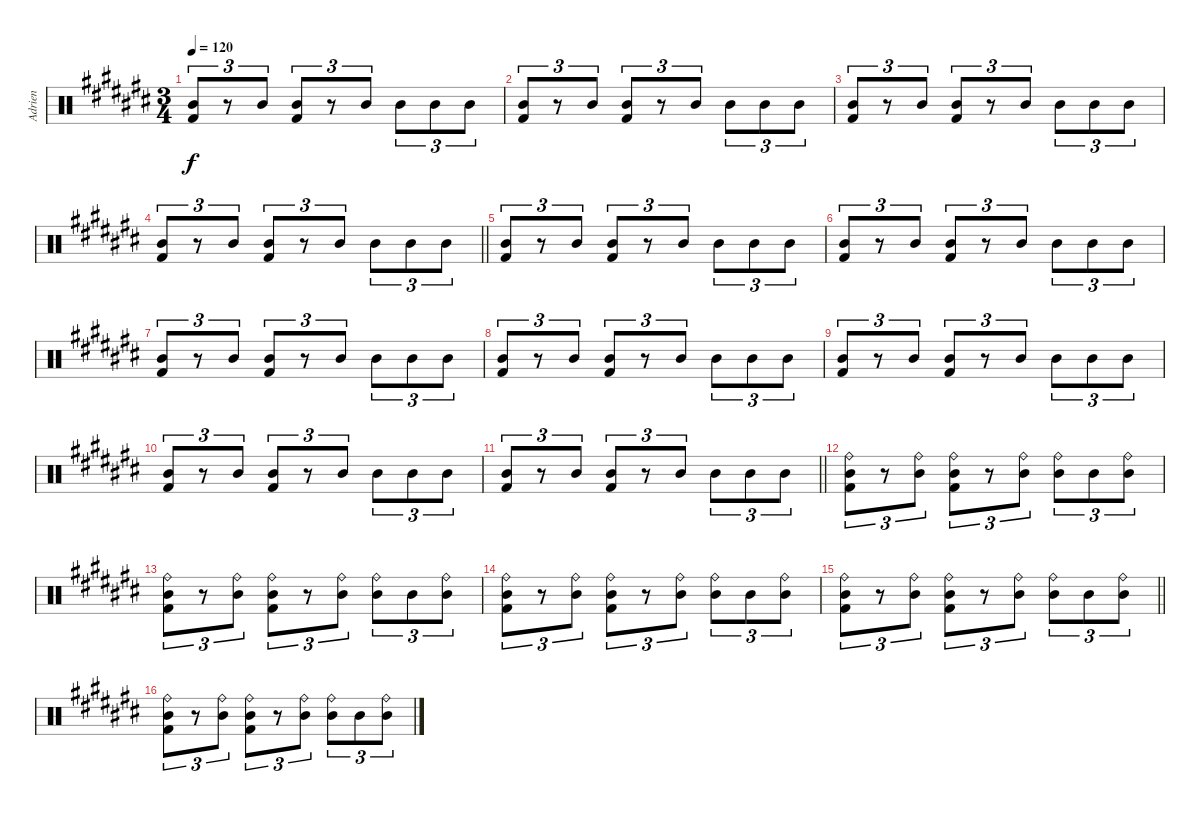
\track ("Adrien" "Adrien") {instrument percussion}
\staff {score}
\articulation defaults
\ts (3 4)
\tempo 120
\clef neutral
\ks c#
("Mid Tom (hit)" "Kick (hit) 2").8{tu (3 2) dy f} r.8{tu (3 2)} "Mid Tom (hit)".8{tu (3 2)} ("Mid Tom (hit)" "Kick (hit) 2").8{tu (3 2)} r.8{tu (3 2)} "Mid Tom (hit)".8{tu (3 2)} "Mid Tom (hit)".8{tu (3 2)} "Mid Tom (hit)".8{tu (3 2)} "Mid Tom (hit)".8{tu (3 2)} |
("Mid Tom (hit)" "Kick (hit) 2").8{tu (3 2)} r.8{tu (3 2)} "Mid Tom (hit)".8{tu (3 2)} ("Mid Tom (hit)" "Kick (hit) 2").8{tu (3 2)} r.8{tu (3 2)} "Mid Tom (hit)".8{tu (3 2)} "Mid Tom (hit)".8{tu (3 2)} "Mid Tom (hit)".8{tu (3 2)} "Mid Tom (hit)".8{tu (3 2)} |
("Mid Tom (hit)" "Kick (hit) 2").8{tu (3 2)} r.8{tu (3 2)} "Mid Tom (hit)".8{tu (3 2)} ("Mid Tom (hit)" "Kick (hit) 2").8{tu (3 2)} r.8{tu (3 2)} "Mid Tom (hit)".8{tu (3 2)} "Mid Tom (hit)".8{tu (3 2)} "Mid Tom (hit)".8{tu (3 2)} "Mid Tom (hit)".8{tu (3 2)} |
\barLineRight lightlight
("Mid Tom (hit)" "Kick (hit) 2").8{tu (3 2)} r.8{tu (3 2)} "Mid Tom (hit)".8{tu (3 2)} ("Mid Tom (hit)" "Kick (hit) 2").8{tu (3 2)} r.8{tu (3 2)} "Mid Tom (hit)".8{tu (3 2)} "Mid Tom (hit)".8{tu (3 2)} "Mid Tom (hit)".8{tu (3 2)} "Mid Tom (hit)".8{tu (3 2)} |
("Mid Tom (hit)" "Kick (hit) 2").8{tu (3 2)} r.8{tu (3 2)} "Mid Tom (hit)".8{tu (3 2)} ("Mid Tom (hit)" "Kick (hit) 2").8{tu (3 2)} r.8{tu (3 2)} "Mid Tom (hit)".8{tu (3 2)} "Mid Tom (hit)".8{tu (3 2)} "Mid Tom (hit)".8{tu (3 2)} "Mid Tom (hit)".8{tu (3 2)} |
("Mid Tom (hit)" "Kick (hit) 2").8{tu (3 2)} r.8{tu (3 2)} "Mid Tom (hit)".8{tu (3 2)} ("Mid Tom (hit)" "Kick (hit) 2").8{tu (3 2)} r.8{tu (3 2)} "Mid Tom (hit)".8{tu (3 2)} "Mid Tom (hit)".8{tu (3 2)} "Mid Tom (hit)".8{tu (3 2)} "Mid Tom (hit)".8{tu (3 2)} |
("Mid Tom (hit)" "Kick (hit) 2").8{tu (3 2)} r.8{tu (3 2)} "Mid Tom (hit)".8{tu (3 2)} ("Mid Tom (hit)" "Kick (hit) 2").8{tu (3 2)} r.8{tu (3 2)} "Mid Tom (hit)".8{tu (3 2)} "Mid Tom (hit)".8{tu (3 2)} "Mid Tom (hit)".8{tu (3 2)} "Mid Tom (hit)".8{tu (3 2)} |
("Mid Tom (hit)" "Kick (hit) 2").8{tu (3 2)} r.8{tu (3 2)} "Mid Tom (hit)".8{tu (3 2)} ("Mid Tom (hit)" "Kick (hit) 2").8{tu (3 2)} r.8{tu (3 2)} "Mid Tom (hit)".8{tu (3 2)} "Mid Tom (hit)".8{tu (3 2)} "Mid Tom (hit)".8{tu (3 2)} "Mid Tom (hit)".8{tu (3 2)} |
("Mid Tom (hit)" "Kick (hit) 2").8{tu (3 2)} r.8{tu (3 2)} "Mid Tom (hit)".8{tu (3 2)} ("Mid Tom (hit)" "Kick (hit) 2").8{tu (3 2)} r.8{tu (3 2)} "Mid Tom (hit)".8{tu (3 2)} "Mid Tom (hit)".8{tu (3 2)} "Mid Tom (hit)".8{tu (3 2)} "Mid Tom (hit)".8{tu (3 2)} |
("Mid Tom (hit)" "Kick (hit) 2").8{tu (3 2)} r.8{tu (3 2)} "Mid Tom (hit)".8{tu (3 2)} ("Mid Tom (hit)" "Kick (hit) 2").8{tu (3 2)} r.8{tu (3 2)} "Mid Tom (hit)".8{tu (3 2)} "Mid Tom (hit)".8{tu (3 2)} "Mid Tom (hit)".8{tu (3 2)} "Mid Tom (hit)".8{tu (3 2)} |
\barLineRight lightlight
("Mid Tom (hit)" "Kick (hit) 2").8{tu (3 2)} r.8{tu (3 2)} "Mid Tom (hit)".8{tu (3 2)} ("Mid Tom (hit)" "Kick (hit) 2").8{tu (3 2)} r.8{tu (3 2)} "Mid Tom (hit)".8{tu (3 2)} "Mid Tom (hit)".8{tu (3 2)} "Mid Tom (hit)".8{tu (3 2)} "Mid Tom (hit)".8{tu (3 2)} |
("Ride (bell)" "Mid Tom (hit)" "Kick (hit) 2").8{tu (3 2)} r.8{tu (3 2)} ("Ride (bell)" "Mid Tom (hit)").8{tu (3 2)} ("Ride (bell)" "Mid Tom (hit)" "Kick (hit) 2").8{tu (3 2)} r.8{tu (3 2)} ("Ride (bell)" "Mid Tom (hit)").8{tu (3 2)} ("Ride (bell)" "Mid Tom (hit)").8{tu (3 2)} "Mid Tom (hit)".8{tu (3 2)} ("Ride (bell)" "Mid Tom (hit)").8{tu (3 2)} |
("Ride (bell)" "Mid Tom (hit)" "Kick (hit) 2").8{tu (3 2)} r.8{tu (3 2)} ("Ride (bell)" "Mid Tom (hit)").8{tu (3 2)} ("Ride (bell)" "Mid Tom (hit)" "Kick (hit) 2").8{tu (3 2)} r.8{tu (3 2)} ("Ride (bell)" "Mid Tom (hit)").8{tu (3 2)} ("Ride (bell)" "Mid Tom (hit)").8{tu (3 2)} "Mid Tom (hit)".8{tu (3 2)} ("Ride (bell)" "Mid Tom (hit)").8{tu (3 2)} |
("Ride (bell)" "Mid Tom (hit)" "Kick (hit) 2").8{tu (3 2)} r.8{tu (3 2)} ("Ride (bell)" "Mid Tom (hit)").8{tu (3 2)} ("Ride (bell)" "Mid Tom (hit)" "Kick (hit) 2").8{tu (3 2)} r.8{tu (3 2)} ("Ride (bell)" "Mid Tom (hit)").8{tu (3 2)} ("Ride (bell)" "Mid Tom (hit)").8{tu (3 2)} "Mid Tom (hit)".8{tu (3 2)} ("Ride (bell)" "Mid Tom (hit)").8{tu (3 2)} |
\barLineRight lightlight
("Ride (bell)" "Mid Tom (hit)" "Kick (hit) 2").8{tu (3 2)} r.8{tu (3 2)} ("Ride (bell)" "Mid Tom (hit)").8{tu (3 2)} ("Ride (bell)" "Mid Tom (hit)" "Kick (hit) 2").8{tu (3 2)} r.8{tu (3 2)} ("Ride (bell)" "Mid Tom (hit)").8{tu (3 2)} ("Ride (bell)" "Mid Tom (hit)").8{tu (3 2)} "Mid Tom (hit)".8{tu (3 2)} ("Ride (bell)" "Mid Tom (hit)").8{tu (3 2)} |
("Ride (bell)" "Mid Tom (hit)" "Kick (hit) 2").8{tu (3 2)} r.8{tu (3 2)} ("Ride (bell)" "Mid Tom (hit)").8{tu (3 2)} ("Ride (bell)" "Mid Tom (hit)" "Kick (hit) 2").8{tu (3 2)} r.8{tu (3 2)} ("Ride (bell)" "Mid Tom (hit)").8{tu (3 2)} ("Ride (bell)" "Mid Tom (hit)").8{tu (3 2)} "Mid Tom (hit)".8{tu (3 2)} ("Ride (bell)" "Mid Tom (hit)").8{tu (3 2)}
